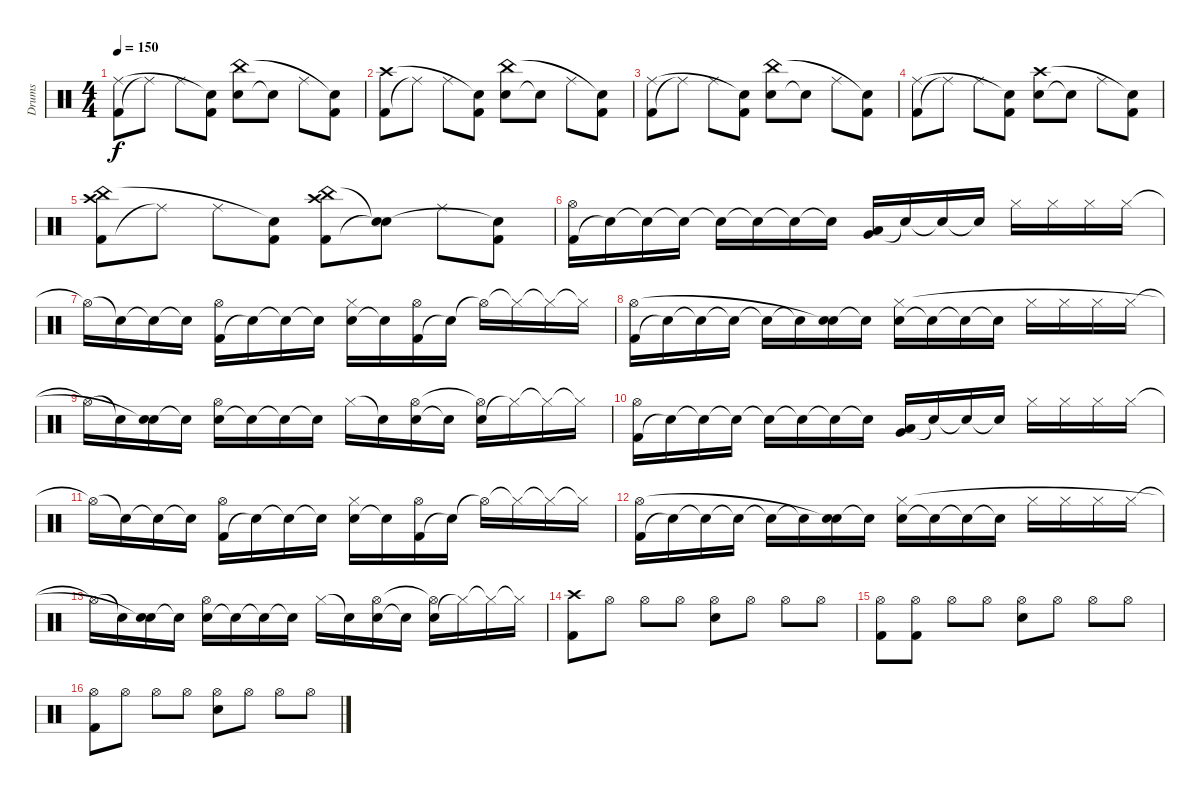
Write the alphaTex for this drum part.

\track ("Drums" "Drums") {instrument percussion}
\staff {score}
\articulation defaults
\ts (4 4)
\tempo 150
\clef neutral
\ks c
("Kick (hit) 2" "Ride (middle)").8{dy f} "Ride (middle)"{t}.8 "Ride (middle)".8 ("Kick (hit) 2" "Snare (hit)"{t}).8 ("Electric Snare (hit)" "China (hit)").8 "Snare (hit)"{t}.8 "Ride (middle)".8 ("Kick (hit) 2" "Snare (hit)"{t}).8 |
("Kick (hit) 2" "Crash high (hit)").8 "Ride (middle)"{t}.8 "Ride (middle)".8 ("Kick (hit) 2" "Snare (hit)"{t}).8 ("Electric Snare (hit)" "China (hit)").8 "Snare (hit)"{t}.8 "Ride (middle)".8 ("Kick (hit) 2" "Snare (hit)"{t}).8 |
("Kick (hit) 2" "Ride (middle)").8 "Ride (middle)"{t}.8 "Ride (middle)".8 ("Kick (hit) 2" "Snare (hit)"{t}).8 ("Electric Snare (hit)" "China (hit)").8 "Snare (hit)"{t}.8 "Ride (middle)".8 ("Kick (hit) 2" "Snare (hit)"{t}).8 |
("Kick (hit) 2" "Ride (middle)").8 "Ride (middle)"{t}.8 "Ride (middle)".8 ("Kick (hit) 2" "Snare (hit)"{t}).8 ("Electric Snare (hit)" "Crash high (hit)").8 "Snare (hit)"{t}.8 "Ride (middle)".8 ("Kick (hit) 2" "Snare (hit)"{t}).8 |
("Kick (hit) 2" "China (hit)" "Crash high (hit)").8 "Ride (middle)"{t}.8 "Ride (middle)".8 ("Kick (hit) 2" "Snare (hit)"{t}).8 ("Kick (hit) 2" "China (hit)" "Crash high (hit)").8 ("Snare (hit)"{t} "Snare (hit)"{t}).8 "Ride (middle)".8 ("Kick (hit) 2" "Snare (hit)"{t}).8 |
("Kick (hit) 2" "Hi-Hat (open)").16 "Snare (hit)"{t}.16 "Snare (hit)"{t}.16 "Snare (hit)"{t}.16 "Snare (hit)"{t}.16 "Snare (hit)"{t}.16 "Snare (hit)"{t}.16 "Snare (hit)"{t}.16 ("Very Low Tom (hit)" "Low Floor Tom (hit)").16 "Snare (hit)"{t}.16 "Snare (hit)"{t}.16 "Snare (hit)"{t}.16 "Hi-Hat (closed)".16 "Hi-Hat (closed)".16 "Hi-Hat (closed)".16 "Hi-Hat (closed)".16 |
"Hi-Hat (open)"{t}.16 "Snare (hit)"{t}.16 "Snare (hit)"{t}.16 "Snare (hit)"{t}.16 ("Kick (hit) 2" "Hi-Hat (open)").16 "Snare (hit)"{t}.16 "Snare (hit)"{t}.16 "Snare (hit)"{t}.16 ("Electric Snare (hit)" "Hi-Hat (closed)").16 "Snare (hit)"{t}.16 ("Kick (hit) 2" "Hi-Hat (open)").16 "Snare (hit)"{t}.16 "Hi-Hat (open)"{t}.16 "Hi-Hat (closed)"{t}.16 "Hi-Hat (closed)"{t}.16 "Hi-Hat (closed)"{t}.16 |
("Kick (hit) 2" "Hi-Hat (open)").16 "Snare (hit)"{t}.16 "Snare (hit)"{t}.16 "Snare (hit)"{t}.16 "Snare (hit)"{t}.16 "Snare (hit)"{t}.16 ("Electric Snare (hit)" "Snare (hit)"{t}).16 "Snare (hit)"{t}.16 ("Electric Snare (hit)" "Hi-Hat (closed)").16 "Snare (hit)"{t}.16 "Snare (hit)"{t}.16 "Snare (hit)"{t}.16 "Hi-Hat (closed)".16 "Hi-Hat (closed)".16 "Hi-Hat (closed)".16 "Hi-Hat (closed)".16 |
"Hi-Hat (open)"{t}.16 "Snare (hit)"{t}.16 ("Electric Snare (hit)" "Snare (hit)"{t}).16 "Snare (hit)"{t}.16 ("Electric Snare (hit)" "Hi-Hat (open)").16 "Snare (hit)"{t}.16 "Snare (hit)"{t}.16 "Snare (hit)"{t}.16 "Hi-Hat (closed)".16 "Snare (hit)"{t}.16 ("Electric Snare (hit)" "Hi-Hat (open)").16 "Snare (hit)"{t}.16 ("Electric Snare (hit)" "Hi-Hat (open)"{t}).16 "Hi-Hat (closed)"{t}.16 "Hi-Hat (closed)"{t}.16 "Hi-Hat (closed)"{t}.16 |
("Kick (hit) 2" "Hi-Hat (open)").16 "Snare (hit)"{t}.16 "Snare (hit)"{t}.16 "Snare (hit)"{t}.16 "Snare (hit)"{t}.16 "Snare (hit)"{t}.16 "Snare (hit)"{t}.16 "Snare (hit)"{t}.16 ("Very Low Tom (hit)" "Low Floor Tom (hit)").16 "Snare (hit)"{t}.16 "Snare (hit)"{t}.16 "Snare (hit)"{t}.16 "Hi-Hat (closed)".16 "Hi-Hat (closed)".16 "Hi-Hat (closed)".16 "Hi-Hat (closed)".16 |
"Hi-Hat (open)"{t}.16 "Snare (hit)"{t}.16 "Snare (hit)"{t}.16 "Snare (hit)"{t}.16 ("Kick (hit) 2" "Hi-Hat (open)").16 "Snare (hit)"{t}.16 "Snare (hit)"{t}.16 "Snare (hit)"{t}.16 ("Electric Snare (hit)" "Hi-Hat (closed)").16 "Snare (hit)"{t}.16 ("Kick (hit) 2" "Hi-Hat (open)").16 "Snare (hit)"{t}.16 "Hi-Hat (open)"{t}.16 "Hi-Hat (closed)"{t}.16 "Hi-Hat (closed)"{t}.16 "Hi-Hat (closed)"{t}.16 |
("Kick (hit) 2" "Hi-Hat (open)").16 "Snare (hit)"{t}.16 "Snare (hit)"{t}.16 "Snare (hit)"{t}.16 "Snare (hit)"{t}.16 "Snare (hit)"{t}.16 ("Electric Snare (hit)" "Snare (hit)"{t}).16 "Snare (hit)"{t}.16 ("Electric Snare (hit)" "Hi-Hat (closed)").16 "Snare (hit)"{t}.16 "Snare (hit)"{t}.16 "Snare (hit)"{t}.16 "Hi-Hat (closed)".16 "Hi-Hat (closed)".16 "Hi-Hat (closed)".16 "Hi-Hat (closed)".16 |
"Hi-Hat (open)"{t}.16 "Snare (hit)"{t}.16 ("Electric Snare (hit)" "Snare (hit)"{t}).16 "Snare (hit)"{t}.16 ("Electric Snare (hit)" "Hi-Hat (open)").16 "Snare (hit)"{t}.16 "Snare (hit)"{t}.16 "Snare (hit)"{t}.16 "Hi-Hat (closed)".16 "Snare (hit)"{t}.16 ("Electric Snare (hit)" "Hi-Hat (open)").16 "Snare (hit)"{t}.16 ("Electric Snare (hit)" "Hi-Hat (open)"{t}).16 "Hi-Hat (closed)"{t}.16 "Hi-Hat (closed)"{t}.16 "Hi-Hat (closed)"{t}.16 |
("Kick (hit) 2" "Crash high (hit)").8 "Hi-Hat (open)".8 "Hi-Hat (open)".8 "Hi-Hat (open)".8 ("Electric Snare (hit)" "Hi-Hat (open)").8 "Hi-Hat (open)".8 "Hi-Hat (open)".8 "Hi-Hat (open)".8 |
("Kick (hit) 2" "Hi-Hat (open)").8 ("Kick (hit) 2" "Hi-Hat (open)").8 "Hi-Hat (open)".8 "Hi-Hat (open)".8 ("Electric Snare (hit)" "Hi-Hat (open)").8 "Hi-Hat (open)".8 "Hi-Hat (open)".8 "Hi-Hat (open)".8 |
("Kick (hit) 2" "Hi-Hat (open)").8 "Hi-Hat (open)".8 "Hi-Hat (open)".8 "Hi-Hat (open)".8 ("Electric Snare (hit)" "Hi-Hat (open)").8 "Hi-Hat (open)".8 "Hi-Hat (open)".8 "Hi-Hat (open)".8
